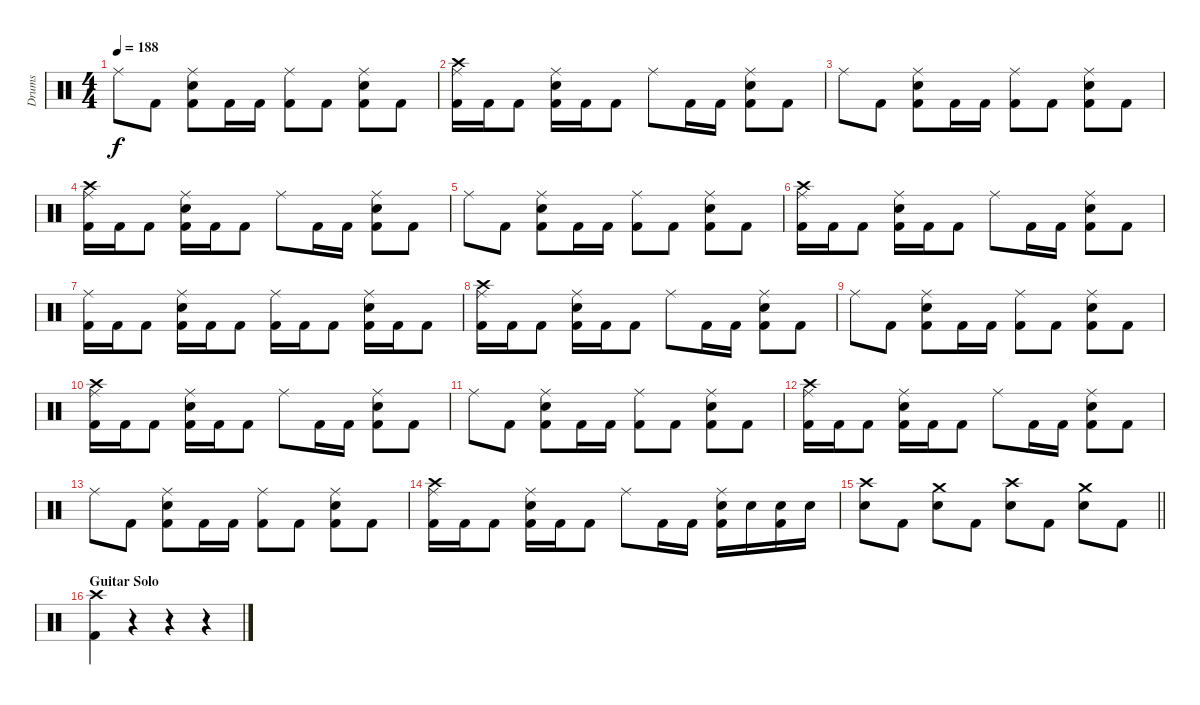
\track ("Drums" "Drums") {instrument percussion}
\staff {score}
\articulation defaults
\ts (4 4)
\tempo 188
\clef neutral
\ks c "Ride (middle)".8{dy f} "Kick (hit) 2".8
("Ride (middle)" "Snare (hit) 2" "Kick (hit) 2").8 "Kick (hit) 2".16 "Kick (hit) 2".16 ("Ride (middle)" "Kick (hit) 2").8 "Kick (hit) 2".8 ("Ride (middle)" "Snare (hit) 2" "Kick (hit) 2").8 "Kick (hit) 2".8 |
("Crash high (hit)" "Ride (middle)" "Kick (hit) 2").16 "Kick (hit) 2".16 "Kick (hit) 2".8 ("Ride (middle)" "Snare (hit) 2" "Kick (hit) 2").16 "Kick (hit) 2".16 "Kick (hit) 2".8 "Ride (middle)".8 "Kick (hit) 2".16 "Kick (hit) 2".16 ("Ride (middle)" "Snare (hit) 2" "Kick (hit) 2").8 "Kick (hit) 2".8 |
"Ride (middle)".8 "Kick (hit) 2".8 ("Ride (middle)" "Snare (hit) 2" "Kick (hit) 2").8 "Kick (hit) 2".16 "Kick (hit) 2".16 ("Ride (middle)" "Kick (hit) 2").8 "Kick (hit) 2".8 ("Ride (middle)" "Snare (hit) 2" "Kick (hit) 2").8 "Kick (hit) 2".8 |
("Crash high (hit)" "Ride (middle)" "Kick (hit) 2").16 "Kick (hit) 2".16 "Kick (hit) 2".8 ("Ride (middle)" "Snare (hit) 2" "Kick (hit) 2").16 "Kick (hit) 2".16 "Kick (hit) 2".8 "Ride (middle)".8 "Kick (hit) 2".16 "Kick (hit) 2".16 ("Ride (middle)" "Snare (hit) 2" "Kick (hit) 2").8 "Kick (hit) 2".8 |
"Ride (middle)".8 "Kick (hit) 2".8 ("Ride (middle)" "Snare (hit) 2" "Kick (hit) 2").8 "Kick (hit) 2".16 "Kick (hit) 2".16 ("Ride (middle)" "Kick (hit) 2").8 "Kick (hit) 2".8 ("Ride (middle)" "Snare (hit) 2" "Kick (hit) 2").8 "Kick (hit) 2".8 |
("Crash high (hit)" "Ride (middle)" "Kick (hit) 2").16 "Kick (hit) 2".16 "Kick (hit) 2".8 ("Ride (middle)" "Snare (hit) 2" "Kick (hit) 2").16 "Kick (hit) 2".16 "Kick (hit) 2".8 "Ride (middle)".8 "Kick (hit) 2".16 "Kick (hit) 2".16 ("Ride (middle)" "Snare (hit) 2" "Kick (hit) 2").8 "Kick (hit) 2".8 |
("Ride (middle)" "Kick (hit) 2").16 "Kick (hit) 2".16 "Kick (hit) 2".8 ("Ride (middle)" "Snare (hit) 2" "Kick (hit) 2").16 "Kick (hit) 2".16 "Kick (hit) 2".8 ("Ride (middle)" "Kick (hit) 2").16 "Kick (hit) 2".16 "Kick (hit) 2".8 ("Ride (middle)" "Snare (hit) 2" "Kick (hit) 2").16 "Kick (hit) 2".16 "Kick (hit) 2".8 |
("Crash high (hit)" "Ride (middle)" "Kick (hit) 2").16 "Kick (hit) 2".16 "Kick (hit) 2".8 ("Ride (middle)" "Snare (hit) 2" "Kick (hit) 2").16 "Kick (hit) 2".16 "Kick (hit) 2".8 "Ride (middle)".8 "Kick (hit) 2".16 "Kick (hit) 2".16 ("Ride (middle)" "Snare (hit) 2" "Kick (hit) 2").8 "Kick (hit) 2".8 |
"Ride (middle)".8 "Kick (hit) 2".8 ("Ride (middle)" "Snare (hit) 2" "Kick (hit) 2").8 "Kick (hit) 2".16 "Kick (hit) 2".16 ("Ride (middle)" "Kick (hit) 2").8 "Kick (hit) 2".8 ("Ride (middle)" "Snare (hit) 2" "Kick (hit) 2").8 "Kick (hit) 2".8 |
("Crash high (hit)" "Ride (middle)" "Kick (hit) 2").16 "Kick (hit) 2".16 "Kick (hit) 2".8 ("Ride (middle)" "Snare (hit) 2" "Kick (hit) 2").16 "Kick (hit) 2".16 "Kick (hit) 2".8 "Ride (middle)".8 "Kick (hit) 2".16 "Kick (hit) 2".16 ("Ride (middle)" "Snare (hit) 2" "Kick (hit) 2").8 "Kick (hit) 2".8 |
"Ride (middle)".8 "Kick (hit) 2".8 ("Ride (middle)" "Snare (hit) 2" "Kick (hit) 2").8 "Kick (hit) 2".16 "Kick (hit) 2".16 ("Ride (middle)" "Kick (hit) 2").8 "Kick (hit) 2".8 ("Ride (middle)" "Snare (hit) 2" "Kick (hit) 2").8 "Kick (hit) 2".8 |
("Crash high (hit)" "Ride (middle)" "Kick (hit) 2").16 "Kick (hit) 2".16 "Kick (hit) 2".8 ("Ride (middle)" "Snare (hit) 2" "Kick (hit) 2").16 "Kick (hit) 2".16 "Kick (hit) 2".8 "Ride (middle)".8 "Kick (hit) 2".16 "Kick (hit) 2".16 ("Ride (middle)" "Snare (hit) 2" "Kick (hit) 2").8 "Kick (hit) 2".8 |
"Ride (middle)".8 "Kick (hit) 2".8 ("Ride (middle)" "Snare (hit) 2" "Kick (hit) 2").8 "Kick (hit) 2".16 "Kick (hit) 2".16 ("Ride (middle)" "Kick (hit) 2").8 "Kick (hit) 2".8 ("Ride (middle)" "Snare (hit) 2" "Kick (hit) 2").8 "Kick (hit) 2".8 |
("Crash high (hit)" "Ride (middle)" "Kick (hit) 2").16 "Kick (hit) 2".16 "Kick (hit) 2".8 ("Ride (middle)" "Snare (hit) 2" "Kick (hit) 2").16 "Kick (hit) 2".16 "Kick (hit) 2".8 "Ride (middle)".8 "Kick (hit) 2".16 "Kick (hit) 2".16 ("Ride (middle)" "Snare (hit) 2" "Kick (hit) 2").16 "Snare (hit) 2".16 ("Snare (hit) 2" "Kick (hit) 2").16 "Snare (hit) 2".16 |
\barLineRight lightlight
("Crash high (hit)" "Snare (hit) 2").8 "Kick (hit) 2".8 ("Crash medium (hit)" "Snare (hit) 2").8 "Kick (hit) 2".8 ("Crash high (hit)" "Snare (hit) 2").8 "Kick (hit) 2".8 ("Crash medium (hit)" "Snare (hit) 2").8 "Kick (hit) 2".8 |
\section ("" "Guitar Solo")
("Crash high (hit)" "Kick (hit) 2").4 r.4 r.4 r.4
